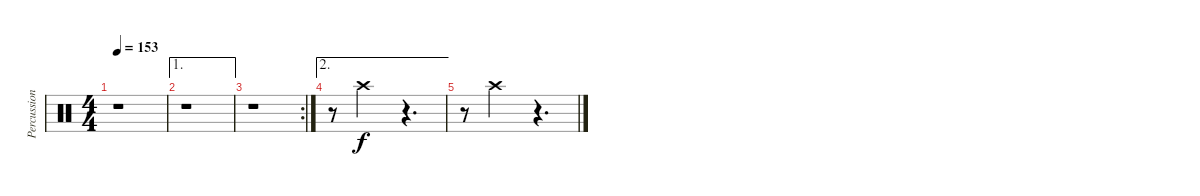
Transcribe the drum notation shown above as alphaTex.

\track ("Percussion" "Percussion") {instrument percussion}
\staff {score}
\articulation defaults
\ts (4 4)
\tempo 153
\clef neutral
\ks c
r.1{dy f} |
\ae 1
r.1 |
\rc 2
r.1 |
\ae 2
r.8 "Crash high (hit)".2 r.4{d} |
r.8 "Crash high (hit)".2 r.4{d}
